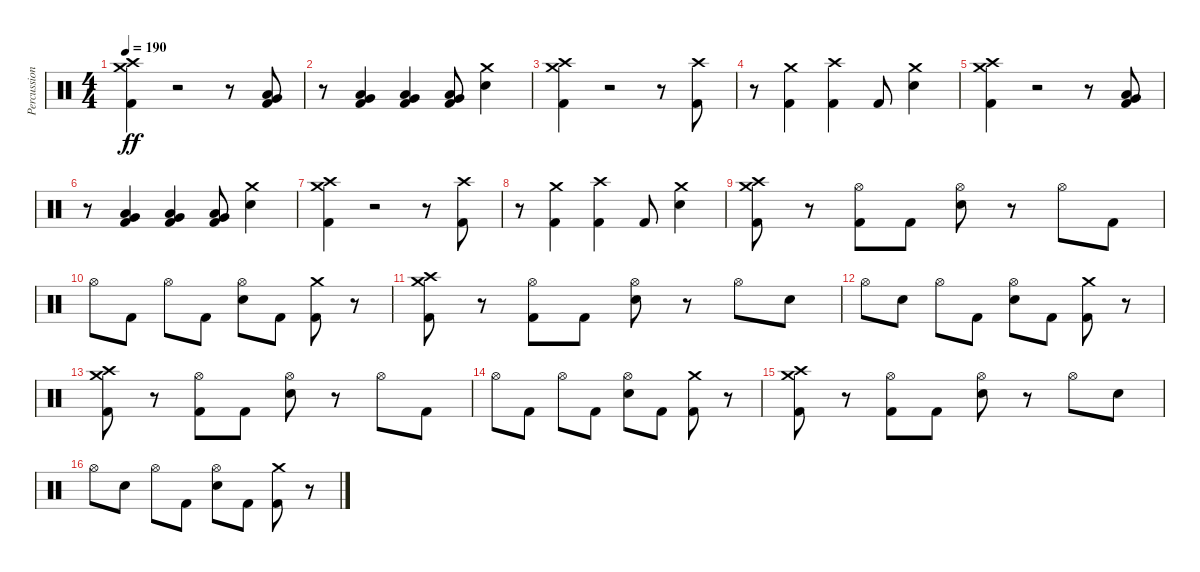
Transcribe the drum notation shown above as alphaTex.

\track ("Percussion" "Percussion") {instrument percussion}
\staff {score}
\articulation defaults
\ts (4 4)
\tempo 190
\clef neutral
\ks c
("Kick (hit) 2" "Crash medium (hit)" "Crash high (hit)").4{dy ff} r.2 r.8 ("Kick (hit) 2" "Low Tom (hit)" "Very Low Tom (hit)").8 |
r.8 ("Kick (hit) 2" "Low Tom (hit)" "Very Low Tom (hit)").4 ("Kick (hit) 2" "Low Tom (hit)" "Very Low Tom (hit)").4 ("Kick (hit) 2" "Low Tom (hit)" "Very Low Tom (hit)").8 ("Electric Snare (hit)" "Crash medium (hit)").4 |
("Kick (hit) 2" "Crash medium (hit)" "Crash high (hit)").4 r.2 r.8 ("Kick (hit) 2" "Crash high (hit)").8 |
r.8 ("Kick (hit) 2" "Crash medium (hit)").4 ("Kick (hit) 2" "Crash high (hit)").4 "Kick (hit) 2".8 ("Electric Snare (hit)" "Crash medium (hit)").4 |
("Kick (hit) 2" "Crash medium (hit)" "Crash high (hit)").4 r.2 r.8 ("Kick (hit) 2" "Low Tom (hit)" "Very Low Tom (hit)").8 |
r.8 ("Kick (hit) 2" "Low Tom (hit)" "Very Low Tom (hit)").4 ("Kick (hit) 2" "Low Tom (hit)" "Very Low Tom (hit)").4 ("Kick (hit) 2" "Very Low Tom (hit)" "Low Floor Tom (hit)").8 ("Electric Snare (hit)" "Crash medium (hit)").4 |
("Kick (hit) 2" "Crash medium (hit)" "Crash high (hit)").4 r.2 r.8 ("Kick (hit) 2" "Crash high (hit)").8 |
r.8 ("Kick (hit) 2" "Crash medium (hit)").4 ("Kick (hit) 2" "Crash high (hit)").4 "Kick (hit) 2".8 ("Electric Snare (hit)" "Crash medium (hit)").4 |
("Kick (hit) 2" "Crash high (hit)" "Crash medium (hit)").8 r.8 ("Kick (hit) 2" "Hi-Hat (open)").8 "Kick (hit) 2".8 ("Electric Snare (hit)" "Hi-Hat (open)").8 r.8 "Hi-Hat (open)".8 "Kick (hit) 2".8 |
"Hi-Hat (open)".8 "Kick (hit) 2".8 "Hi-Hat (open)".8 "Kick (hit) 2".8 ("Electric Snare (hit)" "Hi-Hat (open)").8 "Kick (hit) 2".8 ("Kick (hit) 2" "Crash medium (hit)").8 r.8 |
("Kick (hit) 2" "Crash high (hit)" "Crash medium (hit)").8 r.8 ("Kick (hit) 2" "Hi-Hat (open)").8 "Kick (hit) 2".8 ("Electric Snare (hit)" "Hi-Hat (open)").8 r.8 "Hi-Hat (open)".8 "Electric Snare (hit)".8 |
"Hi-Hat (open)".8 "Electric Snare (hit)".8 "Hi-Hat (open)".8 "Kick (hit) 2".8 ("Electric Snare (hit)" "Hi-Hat (open)").8 "Kick (hit) 2".8 ("Kick (hit) 2" "Crash medium (hit)").8 r.8 |
("Kick (hit) 2" "Crash high (hit)" "Crash medium (hit)").8 r.8 ("Kick (hit) 2" "Hi-Hat (open)").8 "Kick (hit) 2".8 ("Electric Snare (hit)" "Hi-Hat (open)").8 r.8 "Hi-Hat (open)".8 "Kick (hit) 2".8 |
"Hi-Hat (open)".8 "Kick (hit) 2".8 "Hi-Hat (open)".8 "Kick (hit) 2".8 ("Electric Snare (hit)" "Hi-Hat (open)").8 "Kick (hit) 2".8 ("Kick (hit) 2" "Crash medium (hit)").8 r.8 |
("Kick (hit) 2" "Crash high (hit)" "Crash medium (hit)").8 r.8 ("Kick (hit) 2" "Hi-Hat (open)").8 "Kick (hit) 2".8 ("Electric Snare (hit)" "Hi-Hat (open)").8 r.8 "Hi-Hat (open)".8 "Electric Snare (hit)".8 |
"Hi-Hat (open)".8 "Electric Snare (hit)".8 "Hi-Hat (open)".8 "Kick (hit) 2".8 ("Electric Snare (hit)" "Hi-Hat (open)").8 "Kick (hit) 2".8 ("Kick (hit) 2" "Crash medium (hit)").8 r.8
